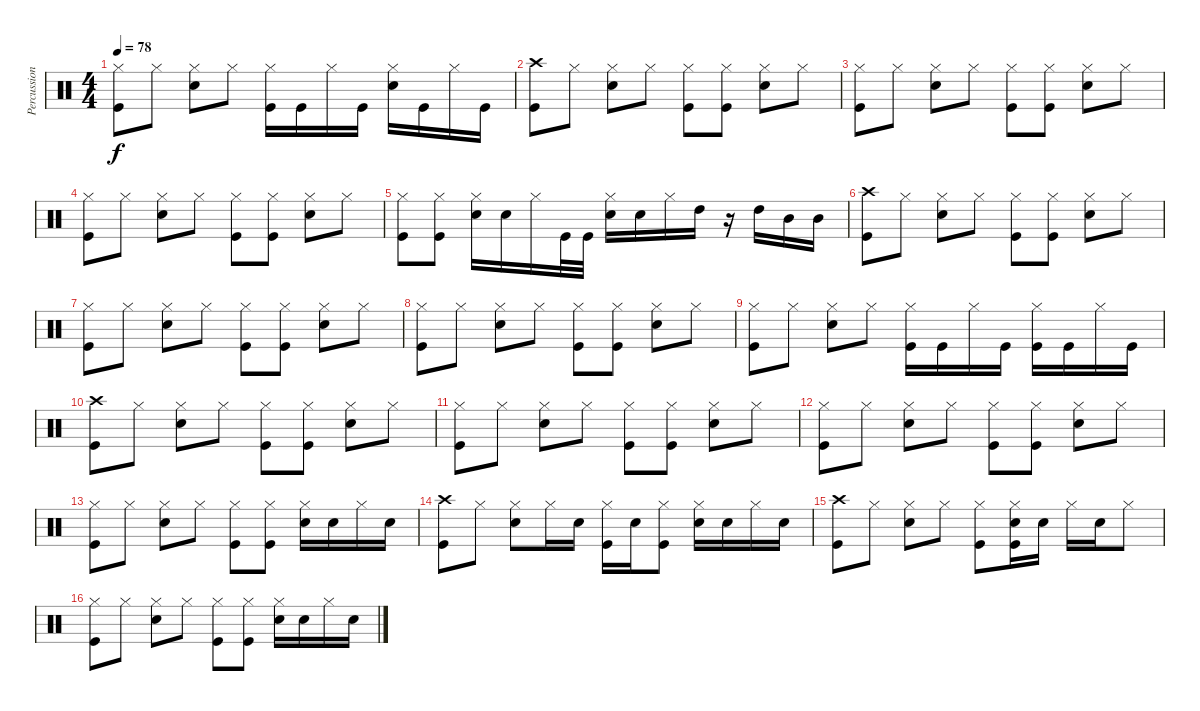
\track ("Percussion" "Percussion") {instrument percussion}
\staff {score}
\articulation defaults
\ts (4 4)
\tempo 78
\clef neutral
\ks c
("Hi-Hat (closed)" "Kick (hit)").8{dy f} "Hi-Hat (closed)".8 ("Hi-Hat (closed)" "Snare (hit) 2").8 "Hi-Hat (closed)".8 ("Hi-Hat (closed)" "Kick (hit)").16 "Kick (hit)".16 "Hi-Hat (closed)".16 "Kick (hit)".16 ("Hi-Hat (closed)" "Snare (hit) 2").16 "Kick (hit)".16 "Hi-Hat (closed)".16 "Kick (hit)".16 |
("Crash high (hit)" "Kick (hit)").8 "Hi-Hat (closed)".8 ("Hi-Hat (closed)" "Snare (hit) 2").8 "Hi-Hat (closed)".8 ("Hi-Hat (closed)" "Kick (hit)").8 ("Hi-Hat (closed)" "Kick (hit)").8 ("Hi-Hat (closed)" "Snare (hit) 2").8 "Hi-Hat (closed)".8 |
("Hi-Hat (closed)" "Kick (hit)").8 "Hi-Hat (closed)".8 ("Hi-Hat (closed)" "Snare (hit) 2").8 "Hi-Hat (closed)".8 ("Hi-Hat (closed)" "Kick (hit)").8 ("Hi-Hat (closed)" "Kick (hit)").8 ("Hi-Hat (closed)" "Snare (hit) 2").8 "Hi-Hat (closed)".8 |
("Hi-Hat (closed)" "Kick (hit)").8 "Hi-Hat (closed)".8 ("Hi-Hat (closed)" "Snare (hit) 2").8 "Hi-Hat (closed)".8 ("Hi-Hat (closed)" "Kick (hit)").8 ("Hi-Hat (closed)" "Kick (hit)").8 ("Hi-Hat (closed)" "Snare (hit) 2").8 "Hi-Hat (closed)".8 |
("Hi-Hat (closed)" "Kick (hit)").8 ("Hi-Hat (closed)" "Kick (hit)").8 ("Hi-Hat (closed)" "Snare (hit) 2").16 "Snare (hit) 2".16 "Hi-Hat (closed)".16 "Kick (hit)".32 "Kick (hit)".32 ("Hi-Hat (closed)" "Snare (hit) 2").16 "Snare (hit) 2".16 "Hi-Hat (closed)".16 "High Tom (hit)".16 r.16 "High Tom (hit)".16 "Mid Tom (hit)".16 "Mid Tom (hit)".16 |
("Crash high (hit)" "Kick (hit)").8 "Hi-Hat (closed)".8 ("Hi-Hat (closed)" "Snare (hit) 2").8 "Hi-Hat (closed)".8 ("Hi-Hat (closed)" "Kick (hit)").8 ("Hi-Hat (closed)" "Kick (hit)").8 ("Hi-Hat (closed)" "Snare (hit) 2").8 "Hi-Hat (closed)".8 |
("Hi-Hat (closed)" "Kick (hit)").8 "Hi-Hat (closed)".8 ("Hi-Hat (closed)" "Snare (hit) 2").8 "Hi-Hat (closed)".8 ("Hi-Hat (closed)" "Kick (hit)").8 ("Hi-Hat (closed)" "Kick (hit)").8 ("Hi-Hat (closed)" "Snare (hit) 2").8 "Hi-Hat (closed)".8 |
("Hi-Hat (closed)" "Kick (hit)").8 "Hi-Hat (closed)".8 ("Hi-Hat (closed)" "Snare (hit) 2").8 "Hi-Hat (closed)".8 ("Hi-Hat (closed)" "Kick (hit)").8 ("Hi-Hat (closed)" "Kick (hit)").8 ("Hi-Hat (closed)" "Snare (hit) 2").8 "Hi-Hat (closed)".8 |
("Hi-Hat (closed)" "Kick (hit)").8 "Hi-Hat (closed)".8 ("Hi-Hat (closed)" "Snare (hit) 2").8 "Hi-Hat (closed)".8 ("Hi-Hat (closed)" "Kick (hit)").16 "Kick (hit)".16 "Hi-Hat (closed)".16 "Kick (hit)".16 ("Hi-Hat (closed)" "Kick (hit)").16 "Kick (hit)".16 "Hi-Hat (closed)".16 "Kick (hit)".16 |
("Crash high (hit)" "Kick (hit)").8 "Hi-Hat (closed)".8 ("Hi-Hat (closed)" "Snare (hit) 2").8 "Hi-Hat (closed)".8 ("Hi-Hat (closed)" "Kick (hit)").8 ("Hi-Hat (closed)" "Kick (hit)").8 ("Hi-Hat (closed)" "Snare (hit) 2").8 "Hi-Hat (closed)".8 |
("Hi-Hat (closed)" "Kick (hit)").8 "Hi-Hat (closed)".8 ("Hi-Hat (closed)" "Snare (hit) 2").8 "Hi-Hat (closed)".8 ("Hi-Hat (closed)" "Kick (hit)").8 ("Hi-Hat (closed)" "Kick (hit)").8 ("Hi-Hat (closed)" "Snare (hit) 2").8 "Hi-Hat (closed)".8 |
("Hi-Hat (closed)" "Kick (hit)").8 "Hi-Hat (closed)".8 ("Hi-Hat (closed)" "Snare (hit) 2").8 "Hi-Hat (closed)".8 ("Hi-Hat (closed)" "Kick (hit)").8 ("Hi-Hat (closed)" "Kick (hit)").8 ("Hi-Hat (closed)" "Snare (hit) 2").8 "Hi-Hat (closed)".8 |
("Hi-Hat (closed)" "Kick (hit)").8 "Hi-Hat (closed)".8 ("Hi-Hat (closed)" "Snare (hit) 2").8 "Hi-Hat (closed)".8 ("Hi-Hat (closed)" "Kick (hit)").8 ("Hi-Hat (closed)" "Kick (hit)").8 ("Hi-Hat (closed)" "Snare (hit) 2").16 "Snare (hit) 2".16 "Hi-Hat (closed)".16 "Snare (hit) 2".16 |
("Crash high (hit)" "Kick (hit)").8 "Hi-Hat (closed)".8 ("Hi-Hat (closed)" "Snare (hit) 2").8 "Hi-Hat (closed)".16 "Snare (hit) 2".16 ("Hi-Hat (closed)" "Kick (hit)").16 "Snare (hit) 2".16 ("Hi-Hat (closed)" "Kick (hit)").8 ("Hi-Hat (closed)" "Snare (hit) 2").16 "Snare (hit) 2".16 "Hi-Hat (closed)".16 "Snare (hit) 2".16 |
("Crash high (hit)" "Kick (hit)").8 "Hi-Hat (closed)".8 ("Hi-Hat (closed)" "Snare (hit) 2").8 "Hi-Hat (closed)".8 ("Hi-Hat (closed)" "Kick (hit)").8 ("Hi-Hat (closed)" "Snare (hit) 2" "Kick (hit)").16 "Snare (hit) 2".16 "Hi-Hat (closed)".16 "Snare (hit) 2".16 "Hi-Hat (closed)".8 |
("Hi-Hat (closed)" "Kick (hit)").8 "Hi-Hat (closed)".8 ("Hi-Hat (closed)" "Snare (hit) 2").8 "Hi-Hat (closed)".8 ("Hi-Hat (closed)" "Kick (hit)").8 ("Hi-Hat (closed)" "Kick (hit)").8 ("Hi-Hat (closed)" "Snare (hit) 2").16 "Snare (hit) 2".16 "Hi-Hat (closed)".16 "Snare (hit) 2".16
